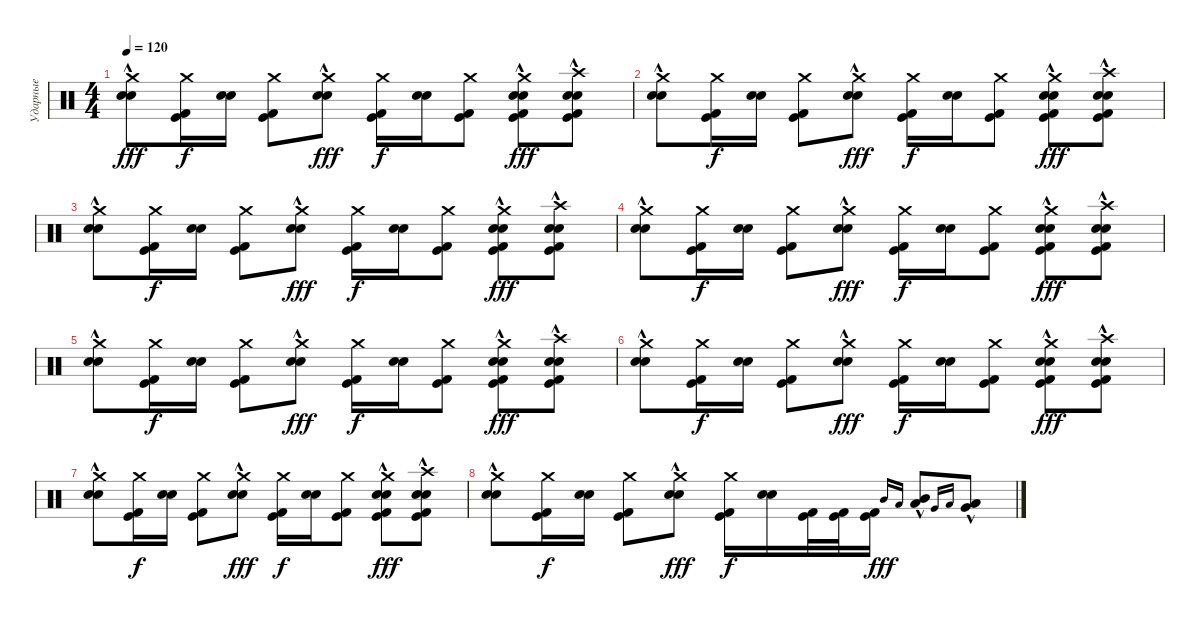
\track ("Ударные" "Ударные") {instrument percussion}
\staff {score}
\articulation defaults
\ts (4 4)
\tempo 120
\clef neutral
\ks c
("Crash medium (hit)" "Snare (hit) 2"{hac} "Electric Snare (hit)"{hac}).8{dy fff} ("Crash medium (hit)" "Kick (hit)" "Kick (hit) 2").16{dy f} ("Snare (hit) 2" "Electric Snare (hit)").16 ("Crash medium (hit)" "Kick (hit)" "Kick (hit) 2").8 ("Crash medium (hit)" "Snare (hit) 2"{hac} "Electric Snare (hit)"{hac}).8{dy fff} ("Crash medium (hit)" "Kick (hit)" "Kick (hit) 2").16{dy f} ("Snare (hit) 2" "Electric Snare (hit)").16 ("Crash medium (hit)" "Kick (hit)" "Kick (hit) 2").8 ("Crash medium (hit)" "Kick (hit)" "Kick (hit) 2" "Snare (hit) 2"{hac} "Electric Snare (hit)"{hac}).8{dy fff} ("Crash high (hit)" "Kick (hit)" "Kick (hit) 2" "Snare (hit) 2"{hac} "Electric Snare (hit)"{hac}).8 |
("Crash medium (hit)" "Snare (hit) 2"{hac} "Electric Snare (hit)"{hac}).8 ("Crash medium (hit)" "Kick (hit)" "Kick (hit) 2").16{dy f} ("Snare (hit) 2" "Electric Snare (hit)").16 ("Crash medium (hit)" "Kick (hit)" "Kick (hit) 2").8 ("Crash medium (hit)" "Snare (hit) 2"{hac} "Electric Snare (hit)"{hac}).8{dy fff} ("Crash medium (hit)" "Kick (hit)" "Kick (hit) 2").16{dy f} ("Snare (hit) 2" "Electric Snare (hit)").16 ("Crash medium (hit)" "Kick (hit)" "Kick (hit) 2").8 ("Crash medium (hit)" "Kick (hit)" "Kick (hit) 2" "Snare (hit) 2"{hac} "Electric Snare (hit)"{hac}).8{dy fff} ("Crash high (hit)" "Kick (hit)" "Kick (hit) 2" "Snare (hit) 2"{hac} "Electric Snare (hit)"{hac}).8 |
("Crash medium (hit)" "Snare (hit) 2"{hac} "Electric Snare (hit)"{hac}).8 ("Crash medium (hit)" "Kick (hit)" "Kick (hit) 2").16{dy f} ("Snare (hit) 2" "Electric Snare (hit)").16 ("Crash medium (hit)" "Kick (hit)" "Kick (hit) 2").8 ("Crash medium (hit)" "Snare (hit) 2"{hac} "Electric Snare (hit)"{hac}).8{dy fff} ("Crash medium (hit)" "Kick (hit)" "Kick (hit) 2").16{dy f} ("Snare (hit) 2" "Electric Snare (hit)").16 ("Crash medium (hit)" "Kick (hit)" "Kick (hit) 2").8 ("Crash medium (hit)" "Kick (hit)" "Kick (hit) 2" "Snare (hit) 2"{hac} "Electric Snare (hit)"{hac}).8{dy fff} ("Crash high (hit)" "Kick (hit)" "Kick (hit) 2" "Snare (hit) 2"{hac} "Electric Snare (hit)"{hac}).8 |
("Crash medium (hit)" "Snare (hit) 2"{hac} "Electric Snare (hit)"{hac}).8 ("Crash medium (hit)" "Kick (hit)" "Kick (hit) 2").16{dy f} ("Snare (hit) 2" "Electric Snare (hit)").16 ("Crash medium (hit)" "Kick (hit)" "Kick (hit) 2").8 ("Crash medium (hit)" "Snare (hit) 2"{hac} "Electric Snare (hit)"{hac}).8{dy fff} ("Crash medium (hit)" "Kick (hit)" "Kick (hit) 2").16{dy f} ("Snare (hit) 2" "Electric Snare (hit)").16 ("Crash medium (hit)" "Kick (hit)" "Kick (hit) 2").8 ("Crash medium (hit)" "Kick (hit)" "Kick (hit) 2" "Snare (hit) 2"{hac} "Electric Snare (hit)"{hac}).8{dy fff} ("Crash high (hit)" "Kick (hit)" "Kick (hit) 2" "Snare (hit) 2"{hac} "Electric Snare (hit)"{hac}).8 |
("Crash medium (hit)" "Snare (hit) 2"{hac} "Electric Snare (hit)"{hac}).8 ("Crash medium (hit)" "Kick (hit)" "Kick (hit) 2").16{dy f} ("Snare (hit) 2" "Electric Snare (hit)").16 ("Crash medium (hit)" "Kick (hit)" "Kick (hit) 2").8 ("Crash medium (hit)" "Snare (hit) 2"{hac} "Electric Snare (hit)"{hac}).8{dy fff} ("Crash medium (hit)" "Kick (hit)" "Kick (hit) 2").16{dy f} ("Snare (hit) 2" "Electric Snare (hit)").16 ("Crash medium (hit)" "Kick (hit)" "Kick (hit) 2").8 ("Crash medium (hit)" "Kick (hit)" "Kick (hit) 2" "Snare (hit) 2"{hac} "Electric Snare (hit)"{hac}).8{dy fff} ("Crash high (hit)" "Kick (hit)" "Kick (hit) 2" "Snare (hit) 2"{hac} "Electric Snare (hit)"{hac}).8 |
("Crash medium (hit)" "Snare (hit) 2"{hac} "Electric Snare (hit)"{hac}).8 ("Crash medium (hit)" "Kick (hit)" "Kick (hit) 2").16{dy f} ("Snare (hit) 2" "Electric Snare (hit)").16 ("Crash medium (hit)" "Kick (hit)" "Kick (hit) 2").8 ("Crash medium (hit)" "Snare (hit) 2"{hac} "Electric Snare (hit)"{hac}).8{dy fff} ("Crash medium (hit)" "Kick (hit)" "Kick (hit) 2").16{dy f} ("Snare (hit) 2" "Electric Snare (hit)").16 ("Crash medium (hit)" "Kick (hit)" "Kick (hit) 2").8 ("Crash medium (hit)" "Kick (hit)" "Kick (hit) 2" "Snare (hit) 2"{hac} "Electric Snare (hit)"{hac}).8{dy fff} ("Crash high (hit)" "Kick (hit)" "Kick (hit) 2" "Snare (hit) 2"{hac} "Electric Snare (hit)"{hac}).8 |
("Crash medium (hit)" "Snare (hit) 2"{hac} "Electric Snare (hit)"{hac}).8 ("Crash medium (hit)" "Kick (hit)" "Kick (hit) 2").16{dy f} ("Snare (hit) 2" "Electric Snare (hit)").16 ("Crash medium (hit)" "Kick (hit)" "Kick (hit) 2").8 ("Crash medium (hit)" "Snare (hit) 2"{hac} "Electric Snare (hit)"{hac}).8{dy fff} ("Crash medium (hit)" "Kick (hit)" "Kick (hit) 2").16{dy f} ("Snare (hit) 2" "Electric Snare (hit)").16 ("Crash medium (hit)" "Kick (hit)" "Kick (hit) 2").8 ("Crash medium (hit)" "Kick (hit)" "Kick (hit) 2" "Snare (hit) 2"{hac} "Electric Snare (hit)"{hac}).8{dy fff} ("Crash high (hit)" "Kick (hit)" "Kick (hit) 2" "Snare (hit) 2"{hac} "Electric Snare (hit)"{hac}).8 |
("Crash medium (hit)" "Snare (hit) 2"{hac} "Electric Snare (hit)"{hac}).8 ("Crash medium (hit)" "Kick (hit)" "Kick (hit) 2").16{dy f} ("Snare (hit) 2" "Electric Snare (hit)").16 ("Crash medium (hit)" "Kick (hit)" "Kick (hit) 2").8 ("Crash medium (hit)" "Snare (hit) 2"{hac} "Electric Snare (hit)"{hac}).8{dy fff} ("Crash medium (hit)" "Kick (hit)" "Kick (hit) 2").16{dy f} ("Snare (hit) 2" "Electric Snare (hit)").16 ("Kick (hit)" "Kick (hit) 2").32 ("Kick (hit)" "Kick (hit) 2").32 ("Kick (hit)" "Kick (hit) 2").16 "Mid Tom (hit)".16{gr onbeat dy fff} "Low Tom (hit)".16{gr onbeat} ("Mid Tom (hit)"{hac} "Low Tom (hit)"{hac}).8 "Very Low Tom (hit)".16{gr onbeat} "Low Floor Tom (hit)".16{gr onbeat} ("Very Low Tom (hit)"{hac} "Low Floor Tom (hit)"{hac}).8
